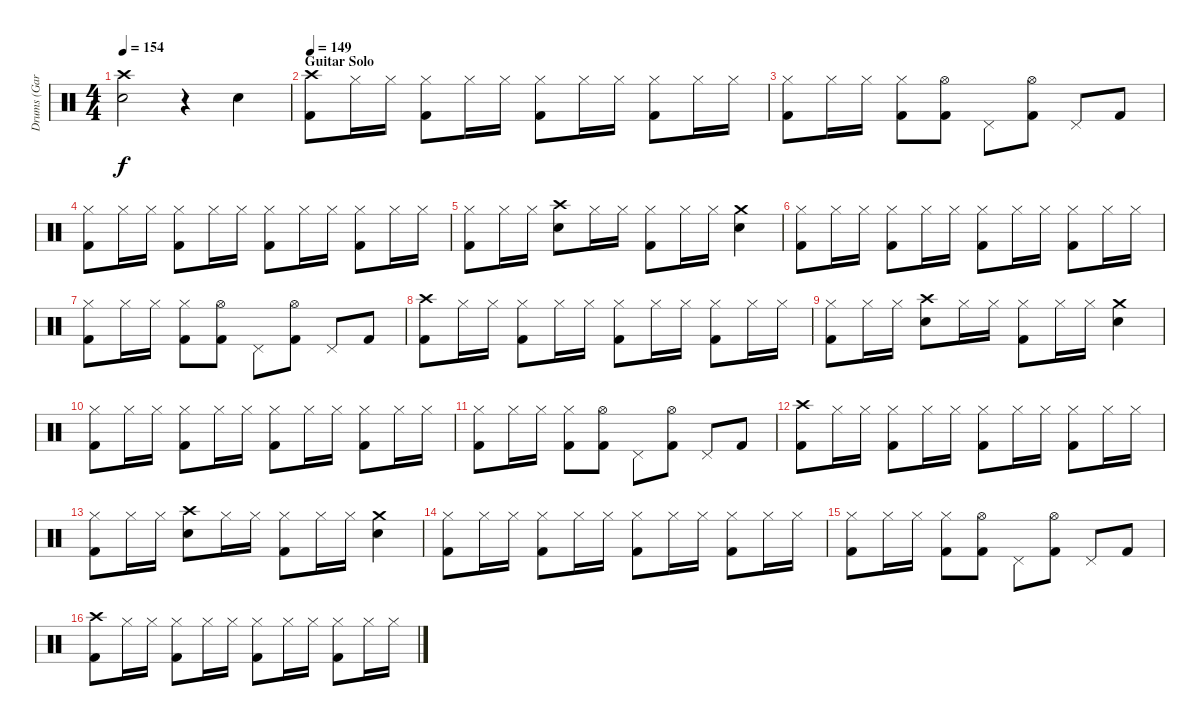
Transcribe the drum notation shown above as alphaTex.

\track ("Drums (Gar Samuelson)" "Drums (Gar") {instrument percussion}
\staff {score}
\articulation defaults
\ts (4 4)
\tempo 154
\clef neutral
\ks c
("Crash high (hit)" "Snare (hit) 2").2{dy f} r.4 "Snare (hit) 2".4 |
\section ("" "Guitar Solo")
\tempo 149
("Crash high (hit)" "Kick (hit) 2").8 "Hi-Hat (closed)".16 "Hi-Hat (closed)".16 ("Hi-Hat (closed)" "Kick (hit) 2").8 "Hi-Hat (closed)".16 "Hi-Hat (closed)".16 ("Hi-Hat (closed)" "Kick (hit) 2").8 "Hi-Hat (closed)".16 "Hi-Hat (closed)".16 ("Hi-Hat (closed)" "Kick (hit) 2").8 "Hi-Hat (closed)".16 "Hi-Hat (closed)".16 |
("Hi-Hat (closed)" "Kick (hit) 2").8 "Hi-Hat (closed)".16 "Hi-Hat (closed)".16 ("Hi-Hat (closed)" "Kick (hit) 2").8 ("Hi-Hat (open)" "Kick (hit) 2").8 "Pedal Hi-Hat (hit)".8 ("Hi-Hat (open)" "Kick (hit) 2").8 "Pedal Hi-Hat (hit)".8 "Kick (hit) 2".8 |
("Hi-Hat (closed)" "Kick (hit) 2").8 "Hi-Hat (closed)".16 "Hi-Hat (closed)".16 ("Hi-Hat (closed)" "Kick (hit) 2").8 "Hi-Hat (closed)".16 "Hi-Hat (closed)".16 ("Hi-Hat (closed)" "Kick (hit) 2").8 "Hi-Hat (closed)".16 "Hi-Hat (closed)".16 ("Hi-Hat (closed)" "Kick (hit) 2").8 "Hi-Hat (closed)".16 "Hi-Hat (closed)".16 |
("Hi-Hat (closed)" "Kick (hit) 2").8 "Hi-Hat (closed)".16 "Hi-Hat (closed)".16 ("Crash high (hit)" "Snare (hit) 2").8 "Hi-Hat (closed)".16 "Hi-Hat (closed)".16 ("Hi-Hat (closed)" "Kick (hit) 2").8 "Hi-Hat (closed)".16 "Hi-Hat (closed)".16 ("Crash medium (hit)" "Snare (hit) 2").4 |
("Hi-Hat (closed)" "Kick (hit) 2").8 "Hi-Hat (closed)".16 "Hi-Hat (closed)".16 ("Hi-Hat (closed)" "Kick (hit) 2").8 "Hi-Hat (closed)".16 "Hi-Hat (closed)".16 ("Hi-Hat (closed)" "Kick (hit) 2").8 "Hi-Hat (closed)".16 "Hi-Hat (closed)".16 ("Hi-Hat (closed)" "Kick (hit) 2").8 "Hi-Hat (closed)".16 "Hi-Hat (closed)".16 |
("Hi-Hat (closed)" "Kick (hit) 2").8 "Hi-Hat (closed)".16 "Hi-Hat (closed)".16 ("Hi-Hat (closed)" "Kick (hit) 2").8 ("Hi-Hat (open)" "Kick (hit) 2").8 "Pedal Hi-Hat (hit)".8 ("Hi-Hat (open)" "Kick (hit) 2").8 "Pedal Hi-Hat (hit)".8 "Kick (hit) 2".8 |
("Crash high (hit)" "Kick (hit) 2").8 "Hi-Hat (closed)".16 "Hi-Hat (closed)".16 ("Hi-Hat (closed)" "Kick (hit) 2").8 "Hi-Hat (closed)".16 "Hi-Hat (closed)".16 ("Hi-Hat (closed)" "Kick (hit) 2").8 "Hi-Hat (closed)".16 "Hi-Hat (closed)".16 ("Hi-Hat (closed)" "Kick (hit) 2").8 "Hi-Hat (closed)".16 "Hi-Hat (closed)".16 |
("Hi-Hat (closed)" "Kick (hit) 2").8 "Hi-Hat (closed)".16 "Hi-Hat (closed)".16 ("Crash high (hit)" "Snare (hit) 2").8 "Hi-Hat (closed)".16 "Hi-Hat (closed)".16 ("Hi-Hat (closed)" "Kick (hit) 2").8 "Hi-Hat (closed)".16 "Hi-Hat (closed)".16 ("Crash medium (hit)" "Snare (hit) 2").4 |
("Hi-Hat (closed)" "Kick (hit) 2").8 "Hi-Hat (closed)".16 "Hi-Hat (closed)".16 ("Hi-Hat (closed)" "Kick (hit) 2").8 "Hi-Hat (closed)".16 "Hi-Hat (closed)".16 ("Hi-Hat (closed)" "Kick (hit) 2").8 "Hi-Hat (closed)".16 "Hi-Hat (closed)".16 ("Hi-Hat (closed)" "Kick (hit) 2").8 "Hi-Hat (closed)".16 "Hi-Hat (closed)".16 |
("Hi-Hat (closed)" "Kick (hit) 2").8 "Hi-Hat (closed)".16 "Hi-Hat (closed)".16 ("Hi-Hat (closed)" "Kick (hit) 2").8 ("Hi-Hat (open)" "Kick (hit) 2").8 "Pedal Hi-Hat (hit)".8 ("Hi-Hat (open)" "Kick (hit) 2").8 "Pedal Hi-Hat (hit)".8 "Kick (hit) 2".8 |
("Crash high (hit)" "Kick (hit) 2").8 "Hi-Hat (closed)".16 "Hi-Hat (closed)".16 ("Hi-Hat (closed)" "Kick (hit) 2").8 "Hi-Hat (closed)".16 "Hi-Hat (closed)".16 ("Hi-Hat (closed)" "Kick (hit) 2").8 "Hi-Hat (closed)".16 "Hi-Hat (closed)".16 ("Hi-Hat (closed)" "Kick (hit) 2").8 "Hi-Hat (closed)".16 "Hi-Hat (closed)".16 |
("Hi-Hat (closed)" "Kick (hit) 2").8 "Hi-Hat (closed)".16 "Hi-Hat (closed)".16 ("Crash high (hit)" "Snare (hit) 2").8 "Hi-Hat (closed)".16 "Hi-Hat (closed)".16 ("Hi-Hat (closed)" "Kick (hit) 2").8 "Hi-Hat (closed)".16 "Hi-Hat (closed)".16 ("Crash medium (hit)" "Snare (hit) 2").4 |
("Hi-Hat (closed)" "Kick (hit) 2").8 "Hi-Hat (closed)".16 "Hi-Hat (closed)".16 ("Hi-Hat (closed)" "Kick (hit) 2").8 "Hi-Hat (closed)".16 "Hi-Hat (closed)".16 ("Hi-Hat (closed)" "Kick (hit) 2").8 "Hi-Hat (closed)".16 "Hi-Hat (closed)".16 ("Hi-Hat (closed)" "Kick (hit) 2").8 "Hi-Hat (closed)".16 "Hi-Hat (closed)".16 |
("Hi-Hat (closed)" "Kick (hit) 2").8 "Hi-Hat (closed)".16 "Hi-Hat (closed)".16 ("Hi-Hat (closed)" "Kick (hit) 2").8 ("Hi-Hat (open)" "Kick (hit) 2").8 "Pedal Hi-Hat (hit)".8 ("Hi-Hat (open)" "Kick (hit) 2").8 "Pedal Hi-Hat (hit)".8 "Kick (hit) 2".8 |
("Crash high (hit)" "Kick (hit) 2").8 "Hi-Hat (closed)".16 "Hi-Hat (closed)".16 ("Hi-Hat (closed)" "Kick (hit) 2").8 "Hi-Hat (closed)".16 "Hi-Hat (closed)".16 ("Hi-Hat (closed)" "Kick (hit) 2").8 "Hi-Hat (closed)".16 "Hi-Hat (closed)".16 ("Hi-Hat (closed)" "Kick (hit) 2").8 "Hi-Hat (closed)".16 "Hi-Hat (closed)".16
